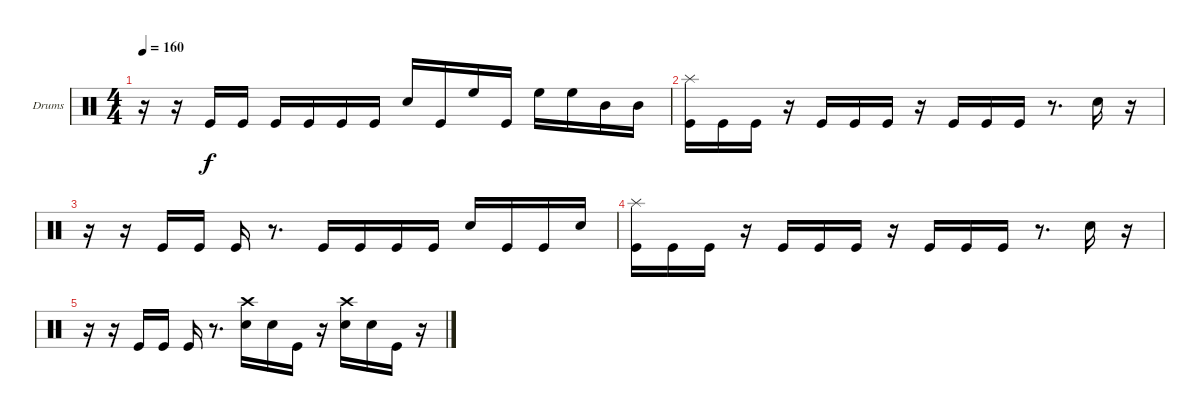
\bracketExtendMode groupsimilarinstruments
\firstSystemTrackNameOrientation horizontal
\otherSystemsTrackNameOrientation horizontal
\track ("Drumkit" "Drums") {instrument percussion}
\staff {score}
\articulation defaults
\ts (4 4)
\tempo 160
\clef neutral
\ks c
r.16{dy f} r.16 "Kick (hit)".16 "Kick (hit)".16 "Kick (hit)".16 "Kick (hit)".16 "Kick (hit)".16 "Kick (hit)".16 "Snare (hit) 2".16 "Kick (hit)".16 "High Floor Tom (hit)".16 "Kick (hit)".16 "High Floor Tom (hit)".16 "High Floor Tom (hit)".16 "Mid Tom (hit)".16 "Mid Tom (hit)".16 |
("Splash (hit)" "Kick (hit)").16 "Kick (hit)".16 "Kick (hit)".16 r.16 "Kick (hit)".16 "Kick (hit)".16 "Kick (hit)".16 r.16 "Kick (hit)".16 "Kick (hit)".16 "Kick (hit)".16 r.8{d} "Snare (hit) 2".16 r.16 |
r.16 r.16 "Kick (hit)".16 "Kick (hit)".16 "Kick (hit)".16 r.8{d} "Kick (hit)".16 "Kick (hit)".16 "Kick (hit)".16 "Kick (hit)".16 "Snare (hit) 2".16 "Kick (hit)".16 "Kick (hit)".16 "Snare (hit) 2".16 |
("Splash (hit)" "Kick (hit)").16 "Kick (hit)".16 "Kick (hit)".16 r.16 "Kick (hit)".16 "Kick (hit)".16 "Kick (hit)".16 r.16 "Kick (hit)".16 "Kick (hit)".16 "Kick (hit)".16 r.8{d} "Snare (hit) 2".16 r.16 |
r.16 r.16 "Kick (hit)".16 "Kick (hit)".16 "Kick (hit)".16 r.8{d} ("Crash high (hit)" "Snare (hit) 2").16 "Snare (hit) 2".16 "Kick (hit)".16 r.16 ("Crash high (hit)" "Snare (hit) 2").16 "Snare (hit) 2".16 "Kick (hit)".16 r.16
